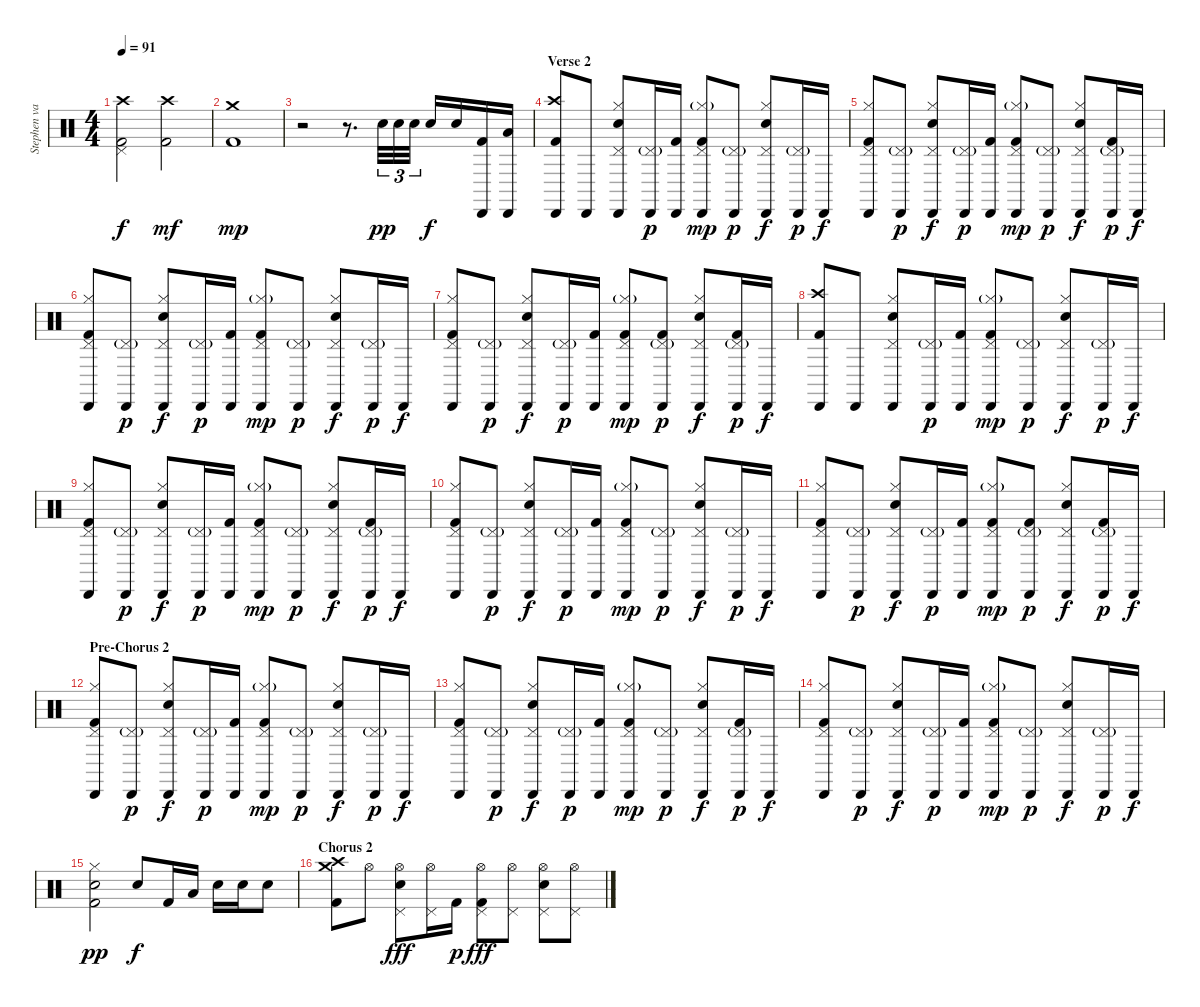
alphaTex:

\track ("Stephen van Haestregt" "Stephen va") {instrument percussion}
\staff {score}
\articulation defaults
\ts (4 4)
\tempo 91
\clef neutral
\ks c
("Crash high (hit)" "Pedal Hi-Hat (hit)" "Kick (hit) 2").2{dy f} ("Crash high (hit)" "Kick (hit) 2").2{dy mf} |
("Crash medium (hit)" "Kick (hit) 2").1{dy mp} |
r.2 r.8{d} "Electric Snare (hit)".32{tu (3 2) dy pp} "Electric Snare (hit)".32{tu (3 2)} "Electric Snare (hit)".32{tu (3 2)} "Electric Snare (hit)".16{dy f} "Electric Snare (hit)".16 ("Cabasa (hit)" "Kick (hit) 2").16 ("Cabasa (hit)" "Low Tom (hit)").16 |
\section ("" "Verse 2")
("Cabasa (hit)" "Crash high (hit)" "Kick (hit) 2").8 "Cabasa (hit)".8 ("Cabasa (hit)" "Hi-Hat (closed)" "Pedal Hi-Hat (hit)" "Electric Snare (hit)").8 ("Cabasa (hit)" "Pedal Hi-Hat (hit)"{g}).16{dy p} ("Cabasa (hit)" "Kick (hit) 2").16 ("Cabasa (hit)" "Hi-Hat (closed)"{g} "Pedal Hi-Hat (hit)" "Kick (hit) 2").8{dy mp} ("Cabasa (hit)" "Pedal Hi-Hat (hit)"{g}).8{dy p} ("Cabasa (hit)" "Hi-Hat (closed)" "Pedal Hi-Hat (hit)" "Electric Snare (hit)").8{dy f} ("Cabasa (hit)" "Pedal Hi-Hat (hit)"{g}).16{dy p} "Cabasa (hit)".16{dy f} |
("Cabasa (hit)" "Hi-Hat (closed)" "Pedal Hi-Hat (hit)" "Kick (hit) 2").8 ("Cabasa (hit)" "Pedal Hi-Hat (hit)"{g}).8{dy p} ("Cabasa (hit)" "Hi-Hat (closed)" "Pedal Hi-Hat (hit)" "Electric Snare (hit)").8{dy f} ("Cabasa (hit)" "Pedal Hi-Hat (hit)"{g}).16{dy p} ("Cabasa (hit)" "Kick (hit) 2").16 ("Cabasa (hit)" "Hi-Hat (closed)"{g} "Pedal Hi-Hat (hit)" "Kick (hit) 2").8{dy mp} ("Cabasa (hit)" "Pedal Hi-Hat (hit)"{g}).8{dy p} ("Cabasa (hit)" "Hi-Hat (closed)" "Pedal Hi-Hat (hit)" "Electric Snare (hit)").8{dy f} ("Cabasa (hit)" "Pedal Hi-Hat (hit)"{g} "Kick (hit) 2").16{dy p} "Cabasa (hit)".16{dy f} |
("Cabasa (hit)" "Hi-Hat (closed)" "Pedal Hi-Hat (hit)" "Kick (hit) 2").8 ("Cabasa (hit)" "Pedal Hi-Hat (hit)"{g}).8{dy p} ("Cabasa (hit)" "Hi-Hat (closed)" "Pedal Hi-Hat (hit)" "Electric Snare (hit)").8{dy f} ("Cabasa (hit)" "Pedal Hi-Hat (hit)"{g}).16{dy p} ("Cabasa (hit)" "Kick (hit) 2").16 ("Cabasa (hit)" "Hi-Hat (closed)"{g} "Pedal Hi-Hat (hit)" "Kick (hit) 2").8{dy mp} ("Cabasa (hit)" "Pedal Hi-Hat (hit)"{g}).8{dy p} ("Cabasa (hit)" "Hi-Hat (closed)" "Pedal Hi-Hat (hit)" "Electric Snare (hit)").8{dy f} ("Cabasa (hit)" "Pedal Hi-Hat (hit)"{g}).16{dy p} "Cabasa (hit)".16{dy f} |
("Cabasa (hit)" "Hi-Hat (closed)" "Pedal Hi-Hat (hit)" "Kick (hit) 2").8 ("Cabasa (hit)" "Pedal Hi-Hat (hit)"{g}).8{dy p} ("Cabasa (hit)" "Hi-Hat (closed)" "Pedal Hi-Hat (hit)" "Electric Snare (hit)").8{dy f} ("Cabasa (hit)" "Pedal Hi-Hat (hit)"{g}).16{dy p} ("Cabasa (hit)" "Kick (hit) 2").16 ("Cabasa (hit)" "Hi-Hat (closed)"{g} "Pedal Hi-Hat (hit)" "Kick (hit) 2").8{dy mp} ("Cabasa (hit)" "Pedal Hi-Hat (hit)"{g} "Kick (hit) 2").8{dy p} ("Cabasa (hit)" "Hi-Hat (closed)" "Pedal Hi-Hat (hit)" "Electric Snare (hit)").8{dy f} ("Cabasa (hit)" "Pedal Hi-Hat (hit)"{g} "Kick (hit) 2").16{dy p} "Cabasa (hit)".16{dy f} |
("Cabasa (hit)" "Crash high (hit)" "Kick (hit) 2").8 "Cabasa (hit)".8 ("Cabasa (hit)" "Hi-Hat (closed)" "Pedal Hi-Hat (hit)" "Electric Snare (hit)").8 ("Cabasa (hit)" "Pedal Hi-Hat (hit)"{g}).16{dy p} ("Cabasa (hit)" "Kick (hit) 2").16 ("Cabasa (hit)" "Hi-Hat (closed)"{g} "Pedal Hi-Hat (hit)" "Kick (hit) 2").8{dy mp} ("Cabasa (hit)" "Pedal Hi-Hat (hit)"{g}).8{dy p} ("Cabasa (hit)" "Hi-Hat (closed)" "Pedal Hi-Hat (hit)" "Electric Snare (hit)").8{dy f} ("Cabasa (hit)" "Pedal Hi-Hat (hit)"{g}).16{dy p} "Cabasa (hit)".16{dy f} |
("Cabasa (hit)" "Hi-Hat (closed)" "Pedal Hi-Hat (hit)" "Kick (hit) 2").8 ("Cabasa (hit)" "Pedal Hi-Hat (hit)"{g}).8{dy p} ("Cabasa (hit)" "Hi-Hat (closed)" "Pedal Hi-Hat (hit)" "Electric Snare (hit)").8{dy f} ("Cabasa (hit)" "Pedal Hi-Hat (hit)"{g}).16{dy p} ("Cabasa (hit)" "Kick (hit) 2").16 ("Cabasa (hit)" "Hi-Hat (closed)"{g} "Pedal Hi-Hat (hit)" "Kick (hit) 2").8{dy mp} ("Cabasa (hit)" "Pedal Hi-Hat (hit)"{g}).8{dy p} ("Cabasa (hit)" "Hi-Hat (closed)" "Pedal Hi-Hat (hit)" "Electric Snare (hit)").8{dy f} ("Cabasa (hit)" "Pedal Hi-Hat (hit)"{g} "Kick (hit) 2").16{dy p} "Cabasa (hit)".16{dy f} |
("Cabasa (hit)" "Hi-Hat (closed)" "Pedal Hi-Hat (hit)" "Kick (hit) 2").8 ("Cabasa (hit)" "Pedal Hi-Hat (hit)"{g}).8{dy p} ("Cabasa (hit)" "Hi-Hat (closed)" "Pedal Hi-Hat (hit)" "Electric Snare (hit)").8{dy f} ("Cabasa (hit)" "Pedal Hi-Hat (hit)"{g}).16{dy p} ("Cabasa (hit)" "Kick (hit) 2").16 ("Cabasa (hit)" "Hi-Hat (closed)"{g} "Pedal Hi-Hat (hit)" "Kick (hit) 2").8{dy mp} ("Cabasa (hit)" "Pedal Hi-Hat (hit)"{g}).8{dy p} ("Cabasa (hit)" "Hi-Hat (closed)" "Pedal Hi-Hat (hit)" "Electric Snare (hit)").8{dy f} ("Cabasa (hit)" "Pedal Hi-Hat (hit)"{g}).16{dy p} "Cabasa (hit)".16{dy f} |
("Cabasa (hit)" "Hi-Hat (closed)" "Pedal Hi-Hat (hit)" "Kick (hit) 2").8 ("Cabasa (hit)" "Pedal Hi-Hat (hit)"{g}).8{dy p} ("Cabasa (hit)" "Hi-Hat (closed)" "Pedal Hi-Hat (hit)" "Electric Snare (hit)").8{dy f} ("Cabasa (hit)" "Pedal Hi-Hat (hit)"{g}).16{dy p} ("Cabasa (hit)" "Kick (hit) 2").16 ("Cabasa (hit)" "Hi-Hat (closed)"{g} "Pedal Hi-Hat (hit)" "Kick (hit) 2").8{dy mp} ("Cabasa (hit)" "Pedal Hi-Hat (hit)"{g} "Kick (hit) 2").8{dy p} ("Cabasa (hit)" "Hi-Hat (closed)" "Pedal Hi-Hat (hit)" "Electric Snare (hit)").8{dy f} ("Cabasa (hit)" "Pedal Hi-Hat (hit)"{g} "Kick (hit) 2").16{dy p} "Cabasa (hit)".16{dy f} |
\section ("" "Pre-Chorus 2")
("Cabasa (hit)" "Hi-Hat (closed)" "Pedal Hi-Hat (hit)" "Kick (hit) 2").8{balance 0} ("Cabasa (hit)" "Pedal Hi-Hat (hit)"{g}).8{dy p} ("Cabasa (hit)" "Hi-Hat (closed)" "Pedal Hi-Hat (hit)" "Electric Snare (hit)").8{dy f} ("Cabasa (hit)" "Pedal Hi-Hat (hit)"{g}).16{dy p} ("Cabasa (hit)" "Kick (hit) 2").16 ("Cabasa (hit)" "Hi-Hat (closed)"{g} "Pedal Hi-Hat (hit)" "Kick (hit) 2").8{dy mp} ("Cabasa (hit)" "Pedal Hi-Hat (hit)"{g}).8{dy p} ("Cabasa (hit)" "Hi-Hat (closed)" "Pedal Hi-Hat (hit)" "Electric Snare (hit)").8{dy f} ("Cabasa (hit)" "Pedal Hi-Hat (hit)"{g}).16{dy p} "Cabasa (hit)".16{dy f} |
("Cabasa (hit)" "Hi-Hat (closed)" "Pedal Hi-Hat (hit)" "Kick (hit) 2").8 ("Cabasa (hit)" "Pedal Hi-Hat (hit)"{g}).8{dy p} ("Cabasa (hit)" "Hi-Hat (closed)" "Pedal Hi-Hat (hit)" "Electric Snare (hit)").8{dy f} ("Cabasa (hit)" "Pedal Hi-Hat (hit)"{g}).16{dy p} ("Cabasa (hit)" "Kick (hit) 2").16 ("Cabasa (hit)" "Hi-Hat (closed)"{g} "Pedal Hi-Hat (hit)" "Kick (hit) 2").8{dy mp} ("Cabasa (hit)" "Pedal Hi-Hat (hit)"{g}).8{dy p} ("Cabasa (hit)" "Hi-Hat (closed)" "Pedal Hi-Hat (hit)" "Electric Snare (hit)").8{dy f} ("Cabasa (hit)" "Pedal Hi-Hat (hit)"{g} "Kick (hit) 2").16{dy p} "Cabasa (hit)".16{dy f} |
("Cabasa (hit)" "Hi-Hat (closed)" "Pedal Hi-Hat (hit)" "Kick (hit) 2").8 ("Cabasa (hit)" "Pedal Hi-Hat (hit)"{g}).8{dy p} ("Cabasa (hit)" "Hi-Hat (closed)" "Pedal Hi-Hat (hit)" "Electric Snare (hit)").8{dy f} ("Cabasa (hit)" "Pedal Hi-Hat (hit)"{g}).16{dy p} ("Cabasa (hit)" "Kick (hit) 2").16 ("Cabasa (hit)" "Hi-Hat (closed)"{g} "Pedal Hi-Hat (hit)" "Kick (hit) 2").8{dy mp} ("Cabasa (hit)" "Pedal Hi-Hat (hit)"{g}).8{dy p} ("Cabasa (hit)" "Hi-Hat (closed)" "Pedal Hi-Hat (hit)" "Electric Snare (hit)").8{dy f} ("Cabasa (hit)" "Pedal Hi-Hat (hit)"{g}).16{dy p} "Cabasa (hit)".16{dy f} |
("Hi-Hat (closed)" "Electric Snare (hit)" "Kick (hit) 2").2{dy pp balance 8} "Electric Snare (hit)".8{dy f} "Kick (hit) 2".16 "Low Tom (hit)".16 "Electric Snare (hit)".16 "Electric Snare (hit)".16 "Electric Snare (hit)".8 |
\section ("" "Chorus 2")
("Crash high (hit)" "Crash medium (hit)" "Kick (hit) 2").8 "Hi-Hat (open)".8 ("Pedal Hi-Hat (hit)" "Hi-Hat (open)" "Electric Snare (hit)").8{dy fff} ("Pedal Hi-Hat (hit)" "Hi-Hat (open)").16 "Kick (hit) 2".16{dy p} ("Pedal Hi-Hat (hit)" "Hi-Hat (open)" "Kick (hit) 2").8{dy fff} ("Pedal Hi-Hat (hit)" "Hi-Hat (open)").8 ("Pedal Hi-Hat (hit)" "Hi-Hat (open)" "Electric Snare (hit)").8 ("Pedal Hi-Hat (hit)" "Hi-Hat (open)").8
